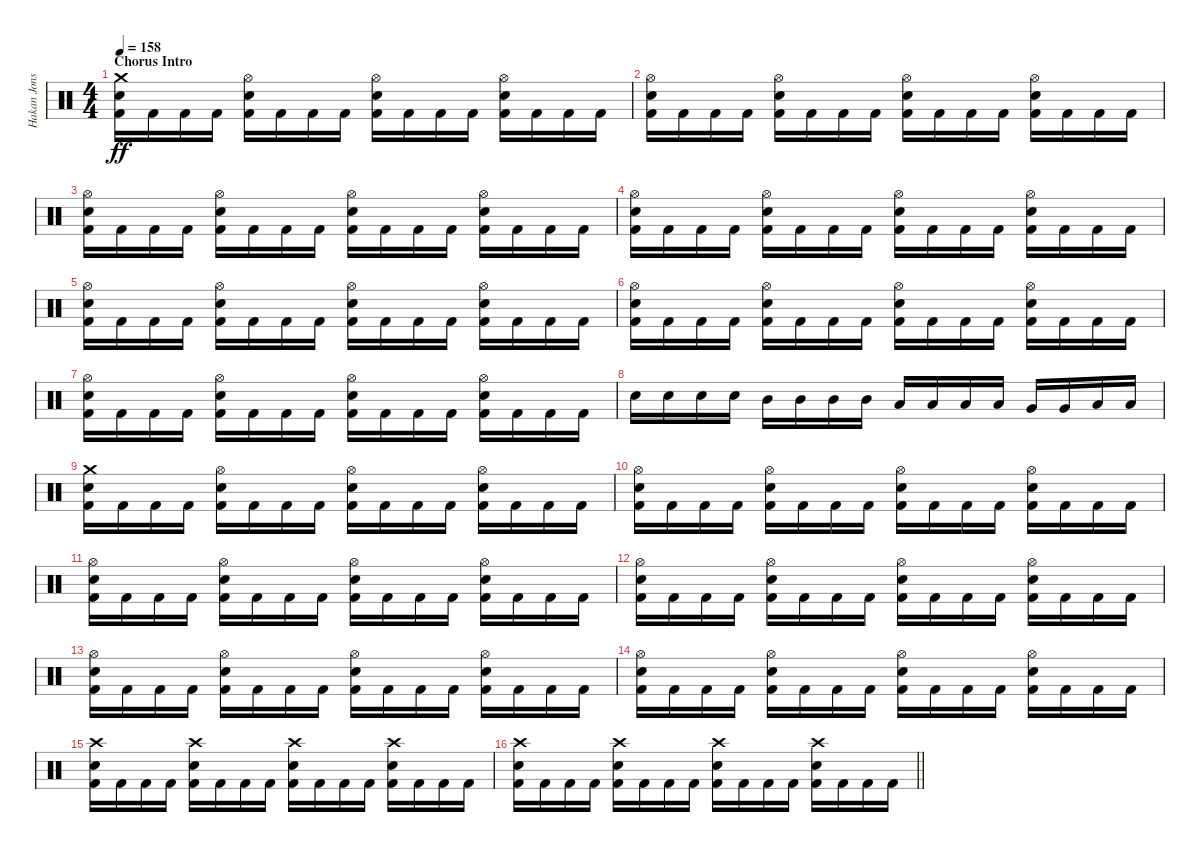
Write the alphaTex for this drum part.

\track ("Hakan Jonsson" "Hakan Jons") {instrument percussion}
\staff {score}
\articulation defaults
\ts (4 4)
\section ("" "Chorus Intro")
\tempo 158
\clef neutral
\ks c
("Crash medium (hit)" "Electric Snare (hit)" "Kick (hit) 2").16{dy ff} "Kick (hit) 2".16 "Kick (hit) 2".16 "Kick (hit) 2".16 ("Hi-Hat (open)" "Electric Snare (hit)" "Kick (hit) 2").16 "Kick (hit) 2".16 "Kick (hit) 2".16 "Kick (hit) 2".16 ("Hi-Hat (open)" "Electric Snare (hit)" "Kick (hit) 2").16 "Kick (hit) 2".16 "Kick (hit) 2".16 "Kick (hit) 2".16 ("Hi-Hat (open)" "Electric Snare (hit)" "Kick (hit) 2").16 "Kick (hit) 2".16 "Kick (hit) 2".16 "Kick (hit) 2".16 |
("Hi-Hat (open)" "Electric Snare (hit)" "Kick (hit) 2").16 "Kick (hit) 2".16 "Kick (hit) 2".16 "Kick (hit) 2".16 ("Hi-Hat (open)" "Electric Snare (hit)" "Kick (hit) 2").16 "Kick (hit) 2".16 "Kick (hit) 2".16 "Kick (hit) 2".16 ("Hi-Hat (open)" "Electric Snare (hit)" "Kick (hit) 2").16 "Kick (hit) 2".16 "Kick (hit) 2".16 "Kick (hit) 2".16 ("Hi-Hat (open)" "Electric Snare (hit)" "Kick (hit) 2").16 "Kick (hit) 2".16 "Kick (hit) 2".16 "Kick (hit) 2".16 |
("Hi-Hat (open)" "Electric Snare (hit)" "Kick (hit) 2").16 "Kick (hit) 2".16 "Kick (hit) 2".16 "Kick (hit) 2".16 ("Hi-Hat (open)" "Electric Snare (hit)" "Kick (hit) 2").16 "Kick (hit) 2".16 "Kick (hit) 2".16 "Kick (hit) 2".16 ("Hi-Hat (open)" "Electric Snare (hit)" "Kick (hit) 2").16 "Kick (hit) 2".16 "Kick (hit) 2".16 "Kick (hit) 2".16 ("Hi-Hat (open)" "Electric Snare (hit)" "Kick (hit) 2").16 "Kick (hit) 2".16 "Kick (hit) 2".16 "Kick (hit) 2".16 |
("Hi-Hat (open)" "Electric Snare (hit)" "Kick (hit) 2").16 "Kick (hit) 2".16 "Kick (hit) 2".16 "Kick (hit) 2".16 ("Hi-Hat (open)" "Electric Snare (hit)" "Kick (hit) 2").16 "Kick (hit) 2".16 "Kick (hit) 2".16 "Kick (hit) 2".16 ("Hi-Hat (open)" "Electric Snare (hit)" "Kick (hit) 2").16 "Kick (hit) 2".16 "Kick (hit) 2".16 "Kick (hit) 2".16 ("Hi-Hat (open)" "Electric Snare (hit)" "Kick (hit) 2").16 "Kick (hit) 2".16 "Kick (hit) 2".16 "Kick (hit) 2".16 |
("Hi-Hat (open)" "Electric Snare (hit)" "Kick (hit) 2").16 "Kick (hit) 2".16 "Kick (hit) 2".16 "Kick (hit) 2".16 ("Hi-Hat (open)" "Electric Snare (hit)" "Kick (hit) 2").16 "Kick (hit) 2".16 "Kick (hit) 2".16 "Kick (hit) 2".16 ("Hi-Hat (open)" "Electric Snare (hit)" "Kick (hit) 2").16 "Kick (hit) 2".16 "Kick (hit) 2".16 "Kick (hit) 2".16 ("Hi-Hat (open)" "Electric Snare (hit)" "Kick (hit) 2").16 "Kick (hit) 2".16 "Kick (hit) 2".16 "Kick (hit) 2".16 |
("Hi-Hat (open)" "Electric Snare (hit)" "Kick (hit) 2").16 "Kick (hit) 2".16 "Kick (hit) 2".16 "Kick (hit) 2".16 ("Hi-Hat (open)" "Electric Snare (hit)" "Kick (hit) 2").16 "Kick (hit) 2".16 "Kick (hit) 2".16 "Kick (hit) 2".16 ("Hi-Hat (open)" "Electric Snare (hit)" "Kick (hit) 2").16 "Kick (hit) 2".16 "Kick (hit) 2".16 "Kick (hit) 2".16 ("Hi-Hat (open)" "Electric Snare (hit)" "Kick (hit) 2").16 "Kick (hit) 2".16 "Kick (hit) 2".16 "Kick (hit) 2".16 |
("Hi-Hat (open)" "Electric Snare (hit)" "Kick (hit) 2").16 "Kick (hit) 2".16 "Kick (hit) 2".16 "Kick (hit) 2".16 ("Hi-Hat (open)" "Electric Snare (hit)" "Kick (hit) 2").16 "Kick (hit) 2".16 "Kick (hit) 2".16 "Kick (hit) 2".16 ("Hi-Hat (open)" "Electric Snare (hit)" "Kick (hit) 2").16 "Kick (hit) 2".16 "Kick (hit) 2".16 "Kick (hit) 2".16 ("Hi-Hat (open)" "Electric Snare (hit)" "Kick (hit) 2").16 "Kick (hit) 2".16 "Kick (hit) 2".16 "Kick (hit) 2".16 |
"Electric Snare (hit)".16 "Electric Snare (hit)".16 "Electric Snare (hit)".16 "Electric Snare (hit)".16 "Mid Tom (hit)".16 "Mid Tom (hit)".16 "Mid Tom (hit)".16 "Mid Tom (hit)".16 "Low Tom (hit)".16 "Low Tom (hit)".16 "Low Tom (hit)".16 "Low Tom (hit)".16 "Very Low Tom (hit)".16 "Very Low Tom (hit)".16 "Low Floor Tom (hit)".16 "Low Floor Tom (hit)".16 |
("Crash medium (hit)" "Electric Snare (hit)" "Kick (hit) 2").16 "Kick (hit) 2".16 "Kick (hit) 2".16 "Kick (hit) 2".16 ("Hi-Hat (open)" "Electric Snare (hit)" "Kick (hit) 2").16 "Kick (hit) 2".16 "Kick (hit) 2".16 "Kick (hit) 2".16 ("Hi-Hat (open)" "Electric Snare (hit)" "Kick (hit) 2").16 "Kick (hit) 2".16 "Kick (hit) 2".16 "Kick (hit) 2".16 ("Hi-Hat (open)" "Electric Snare (hit)" "Kick (hit) 2").16 "Kick (hit) 2".16 "Kick (hit) 2".16 "Kick (hit) 2".16 |
("Hi-Hat (open)" "Electric Snare (hit)" "Kick (hit) 2").16 "Kick (hit) 2".16 "Kick (hit) 2".16 "Kick (hit) 2".16 ("Hi-Hat (open)" "Electric Snare (hit)" "Kick (hit) 2").16 "Kick (hit) 2".16 "Kick (hit) 2".16 "Kick (hit) 2".16 ("Hi-Hat (open)" "Electric Snare (hit)" "Kick (hit) 2").16 "Kick (hit) 2".16 "Kick (hit) 2".16 "Kick (hit) 2".16 ("Hi-Hat (open)" "Electric Snare (hit)" "Kick (hit) 2").16 "Kick (hit) 2".16 "Kick (hit) 2".16 "Kick (hit) 2".16 |
("Hi-Hat (open)" "Electric Snare (hit)" "Kick (hit) 2").16 "Kick (hit) 2".16 "Kick (hit) 2".16 "Kick (hit) 2".16 ("Hi-Hat (open)" "Electric Snare (hit)" "Kick (hit) 2").16 "Kick (hit) 2".16 "Kick (hit) 2".16 "Kick (hit) 2".16 ("Hi-Hat (open)" "Electric Snare (hit)" "Kick (hit) 2").16 "Kick (hit) 2".16 "Kick (hit) 2".16 "Kick (hit) 2".16 ("Hi-Hat (open)" "Electric Snare (hit)" "Kick (hit) 2").16 "Kick (hit) 2".16 "Kick (hit) 2".16 "Kick (hit) 2".16 |
("Hi-Hat (open)" "Electric Snare (hit)" "Kick (hit) 2").16 "Kick (hit) 2".16 "Kick (hit) 2".16 "Kick (hit) 2".16 ("Hi-Hat (open)" "Electric Snare (hit)" "Kick (hit) 2").16 "Kick (hit) 2".16 "Kick (hit) 2".16 "Kick (hit) 2".16 ("Hi-Hat (open)" "Electric Snare (hit)" "Kick (hit) 2").16 "Kick (hit) 2".16 "Kick (hit) 2".16 "Kick (hit) 2".16 ("Hi-Hat (open)" "Electric Snare (hit)" "Kick (hit) 2").16 "Kick (hit) 2".16 "Kick (hit) 2".16 "Kick (hit) 2".16 |
("Hi-Hat (open)" "Electric Snare (hit)" "Kick (hit) 2").16 "Kick (hit) 2".16 "Kick (hit) 2".16 "Kick (hit) 2".16 ("Hi-Hat (open)" "Electric Snare (hit)" "Kick (hit) 2").16 "Kick (hit) 2".16 "Kick (hit) 2".16 "Kick (hit) 2".16 ("Hi-Hat (open)" "Electric Snare (hit)" "Kick (hit) 2").16 "Kick (hit) 2".16 "Kick (hit) 2".16 "Kick (hit) 2".16 ("Hi-Hat (open)" "Electric Snare (hit)" "Kick (hit) 2").16 "Kick (hit) 2".16 "Kick (hit) 2".16 "Kick (hit) 2".16 |
("Hi-Hat (open)" "Electric Snare (hit)" "Kick (hit) 2").16 "Kick (hit) 2".16 "Kick (hit) 2".16 "Kick (hit) 2".16 ("Hi-Hat (open)" "Electric Snare (hit)" "Kick (hit) 2").16 "Kick (hit) 2".16 "Kick (hit) 2".16 "Kick (hit) 2".16 ("Hi-Hat (open)" "Electric Snare (hit)" "Kick (hit) 2").16 "Kick (hit) 2".16 "Kick (hit) 2".16 "Kick (hit) 2".16 ("Hi-Hat (open)" "Electric Snare (hit)" "Kick (hit) 2").16 "Kick (hit) 2".16 "Kick (hit) 2".16 "Kick (hit) 2".16 |
("Crash high (hit)" "Electric Snare (hit)" "Kick (hit) 2").16 "Kick (hit) 2".16 "Kick (hit) 2".16 "Kick (hit) 2".16 ("Crash high (hit)" "Electric Snare (hit)" "Kick (hit) 2").16 "Kick (hit) 2".16 "Kick (hit) 2".16 "Kick (hit) 2".16 ("Crash high (hit)" "Electric Snare (hit)" "Kick (hit) 2").16 "Kick (hit) 2".16 "Kick (hit) 2".16 "Kick (hit) 2".16 ("Crash high (hit)" "Electric Snare (hit)" "Kick (hit) 2").16 "Kick (hit) 2".16 "Kick (hit) 2".16 "Kick (hit) 2".16 |
\barLineRight lightlight
("Crash high (hit)" "Electric Snare (hit)" "Kick (hit) 2").16 "Kick (hit) 2".16 "Kick (hit) 2".16 "Kick (hit) 2".16 ("Crash high (hit)" "Electric Snare (hit)" "Kick (hit) 2").16 "Kick (hit) 2".16 "Kick (hit) 2".16 "Kick (hit) 2".16 ("Crash high (hit)" "Electric Snare (hit)" "Kick (hit) 2").16 "Kick (hit) 2".16 "Kick (hit) 2".16 "Kick (hit) 2".16 ("Crash high (hit)" "Electric Snare (hit)" "Kick (hit) 2").16 "Kick (hit) 2".16 "Kick (hit) 2".16 "Kick (hit) 2".16
